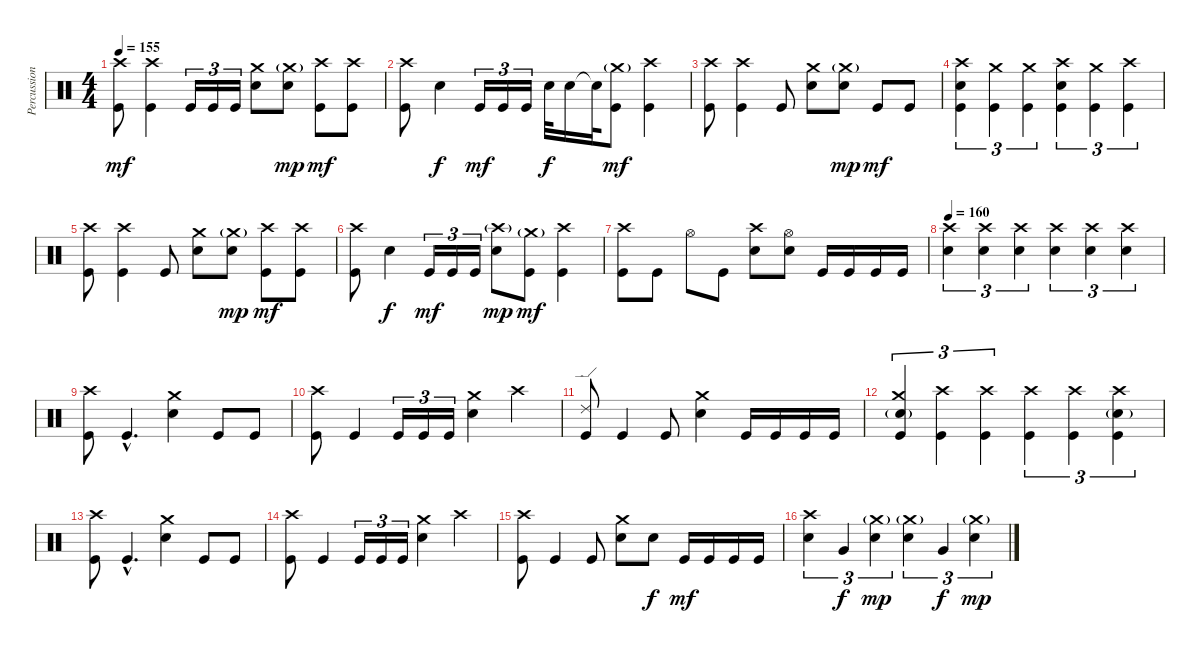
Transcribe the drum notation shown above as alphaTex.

\track ("Percussion" "Percussion") {instrument percussion}
\staff {score}
\articulation defaults
\ts (4 4)
\tempo 155
\clef neutral
\ks c
("Crash high (hit)" "Kick (hit)").8{dy mf} ("Crash high (hit)" "Kick (hit)").4 "Kick (hit)".16{tu (3 2)} "Kick (hit)".16{tu (3 2)} "Kick (hit)".16{tu (3 2)} ("Crash medium (hit)" "Electric Snare (hit)").8 ("Crash medium (hit)"{g} "Electric Snare (hit)").8{dy mp} ("Crash high (hit)" "Kick (hit)").8{dy mf} ("Crash high (hit)" "Kick (hit)").8 |
("Crash high (hit)" "Kick (hit)").8 "Electric Snare (hit)".4{dy f} "Kick (hit)".16{tu (3 2) dy mf} "Kick (hit)".16{tu (3 2)} "Kick (hit)".16{tu (3 2)} "Electric Snare (hit)".32{dy f} "Electric Snare (hit)".16 "Snare (hit)"{t}.32 ("Crash medium (hit)"{g} "Kick (hit)").8{dy mf} ("Crash high (hit)" "Kick (hit)").4 |
("Crash high (hit)" "Kick (hit)").8 ("Crash high (hit)" "Kick (hit)").4 "Kick (hit)".8 ("Crash medium (hit)" "Electric Snare (hit)").8 ("Crash medium (hit)"{g} "Electric Snare (hit)").8{dy mp} "Kick (hit)".8{dy mf} "Kick (hit)".8 |
("Crash high (hit)" "Electric Snare (hit)" "Kick (hit)").4{tu (3 2)} ("Crash medium (hit)" "Kick (hit)").4{tu (3 2)} ("Crash medium (hit)" "Kick (hit)").4{tu (3 2)} ("Crash high (hit)" "Electric Snare (hit)" "Kick (hit)").4{tu (3 2)} ("Crash medium (hit)" "Kick (hit)").4{tu (3 2)} ("Crash high (hit)" "Kick (hit)").4{tu (3 2)} |
("Crash high (hit)" "Kick (hit)").8 ("Crash high (hit)" "Kick (hit)").4 "Kick (hit)".8 ("Crash medium (hit)" "Electric Snare (hit)").8 ("Crash medium (hit)"{g} "Electric Snare (hit)").8{dy mp} ("Crash high (hit)" "Kick (hit)").8{dy mf} ("Crash high (hit)" "Kick (hit)").8 |
("Crash high (hit)" "Kick (hit)").8 "Electric Snare (hit)".4{dy f} "Kick (hit)".16{tu (3 2) dy mf} "Kick (hit)".16{tu (3 2)} "Kick (hit)".16{tu (3 2)} ("Crash high (hit)"{g} "Electric Snare (hit)").8{dy mp} ("Crash medium (hit)"{g} "Kick (hit)").8{dy mf} ("Crash high (hit)" "Kick (hit)").4 |
("Crash high (hit)" "Kick (hit)").8 "Kick (hit)".8 "Hi-Hat (open)".8 "Kick (hit)".8 ("Crash high (hit)" "Electric Snare (hit)").8 ("Hi-Hat (open)" "Electric Snare (hit)").8 "Kick (hit)".16 "Kick (hit)".16 "Kick (hit)".16 "Kick (hit)".16 |
\tempo 160
("Crash high (hit)" "Electric Snare (hit)").4{tu (3 2)} ("Crash high (hit)" "Electric Snare (hit)").4{tu (3 2)} ("Crash high (hit)" "Electric Snare (hit)").4{tu (3 2)} ("Crash high (hit)" "Electric Snare (hit)").4{tu (3 2)} ("Crash high (hit)" "Electric Snare (hit)").4{tu (3 2)} ("Crash high (hit)" "Electric Snare (hit)").4{tu (3 2)} |
("Crash high (hit)" "Kick (hit)").8 "Kick (hit)"{hac}.4{d} ("Crash medium (hit)" "Electric Snare (hit)").4 "Kick (hit)".8 "Kick (hit)".8 |
("Crash high (hit)" "Kick (hit)").8 "Kick (hit)".4 "Kick (hit)".16{tu (3 2)} "Kick (hit)".16{tu (3 2)} "Kick (hit)".16{tu (3 2)} ("Crash medium (hit)" "Electric Snare (hit)").4 "Crash high (hit)".4 |
("Ride (edge) 2" "Kick (hit)").8 "Kick (hit)".4 "Kick (hit)".8 ("Crash medium (hit)" "Electric Snare (hit)").4 "Kick (hit)".16 "Kick (hit)".16 "Kick (hit)".16 "Kick (hit)".16 |
("Crash medium (hit)" "Electric Snare (hit)"{g} "Kick (hit)").4{tu (3 2)} ("Crash high (hit)" "Kick (hit)").4{tu (3 2)} ("Crash high (hit)" "Kick (hit)").4{tu (3 2)} ("Crash high (hit)" "Kick (hit)").4{tu (3 2)} ("Crash high (hit)" "Kick (hit)").4{tu (3 2)} ("Crash high (hit)" "Electric Snare (hit)"{g} "Kick (hit)").4{tu (3 2)} |
("Crash high (hit)" "Kick (hit)").8 "Kick (hit)"{hac}.4{d} ("Crash medium (hit)" "Electric Snare (hit)").4 "Kick (hit)".8 "Kick (hit)".8 |
("Crash high (hit)" "Kick (hit)").8 "Kick (hit)".4 "Kick (hit)".16{tu (3 2)} "Kick (hit)".16{tu (3 2)} "Kick (hit)".16{tu (3 2)} ("Crash medium (hit)" "Electric Snare (hit)").4 "Crash high (hit)".4 |
("Crash high (hit)" "Kick (hit)").8 "Kick (hit)".4 "Kick (hit)".8 ("Crash medium (hit)" "Electric Snare (hit)").8 "Electric Snare (hit)".8{dy f} "Kick (hit)".16{dy mf} "Kick (hit)".16 "Kick (hit)".16 "Kick (hit)".16 |
("Crash high (hit)" "Electric Snare (hit)").4{tu (3 2)} "Very Low Tom (hit)".4{tu (3 2) dy f} ("Crash medium (hit)"{g} "Electric Snare (hit)").4{tu (3 2) dy mp} ("Crash medium (hit)"{g} "Electric Snare (hit)").4{tu (3 2)} "Very Low Tom (hit)".4{tu (3 2) dy f} ("Crash medium (hit)"{g} "Electric Snare (hit)").4{tu (3 2) dy mp}
